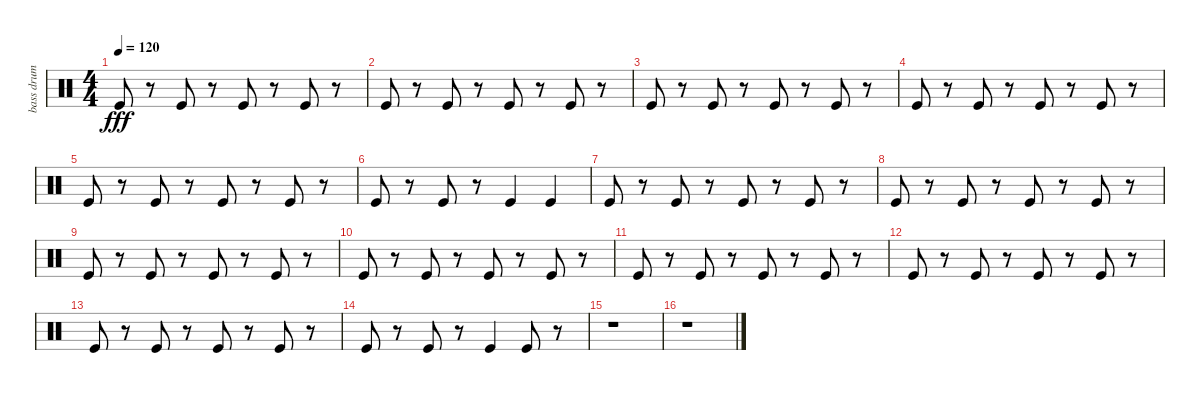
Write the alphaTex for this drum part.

\track ("bass drum" "bass drum") {instrument percussion}
\staff {score}
\articulation defaults
\ts (4 4)
\tempo 120
\clef neutral
\ks c "Kick (hit)".8{dy fff}
r.8 "Kick (hit)".8 r.8 "Kick (hit)".8 r.8 "Kick (hit)".8 r.8 |
"Kick (hit)".8 r.8 "Kick (hit)".8 r.8 "Kick (hit)".8 r.8 "Kick (hit)".8 r.8 |
"Kick (hit)".8 r.8 "Kick (hit)".8 r.8 "Kick (hit)".8 r.8 "Kick (hit)".8 r.8 |
"Kick (hit)".8 r.8 "Kick (hit)".8 r.8 "Kick (hit)".8 r.8 "Kick (hit)".8 r.8 |
"Kick (hit)".8 r.8 "Kick (hit)".8 r.8 "Kick (hit)".8 r.8 "Kick (hit)".8 r.8 |
"Kick (hit)".8 r.8 "Kick (hit)".8 r.8 "Kick (hit)".4 "Kick (hit)".4 |
"Kick (hit)".8 r.8 "Kick (hit)".8 r.8 "Kick (hit)".8 r.8 "Kick (hit)".8 r.8 |
"Kick (hit)".8 r.8 "Kick (hit)".8 r.8 "Kick (hit)".8 r.8 "Kick (hit)".8 r.8 |
"Kick (hit)".8 r.8 "Kick (hit)".8 r.8 "Kick (hit)".8 r.8 "Kick (hit)".8 r.8 |
"Kick (hit)".8 r.8 "Kick (hit)".8 r.8 "Kick (hit)".8 r.8 "Kick (hit)".8 r.8 |
"Kick (hit)".8 r.8 "Kick (hit)".8 r.8 "Kick (hit)".8 r.8 "Kick (hit)".8 r.8 |
"Kick (hit)".8 r.8 "Kick (hit)".8 r.8 "Kick (hit)".8 r.8 "Kick (hit)".8 r.8 |
"Kick (hit)".8 r.8 "Kick (hit)".8 r.8 "Kick (hit)".8 r.8 "Kick (hit)".8 r.8 |
"Kick (hit)".8 r.8 "Kick (hit)".8 r.8 "Kick (hit)".4 "Kick (hit)".8 r.8 |
r.1 |
r.1
